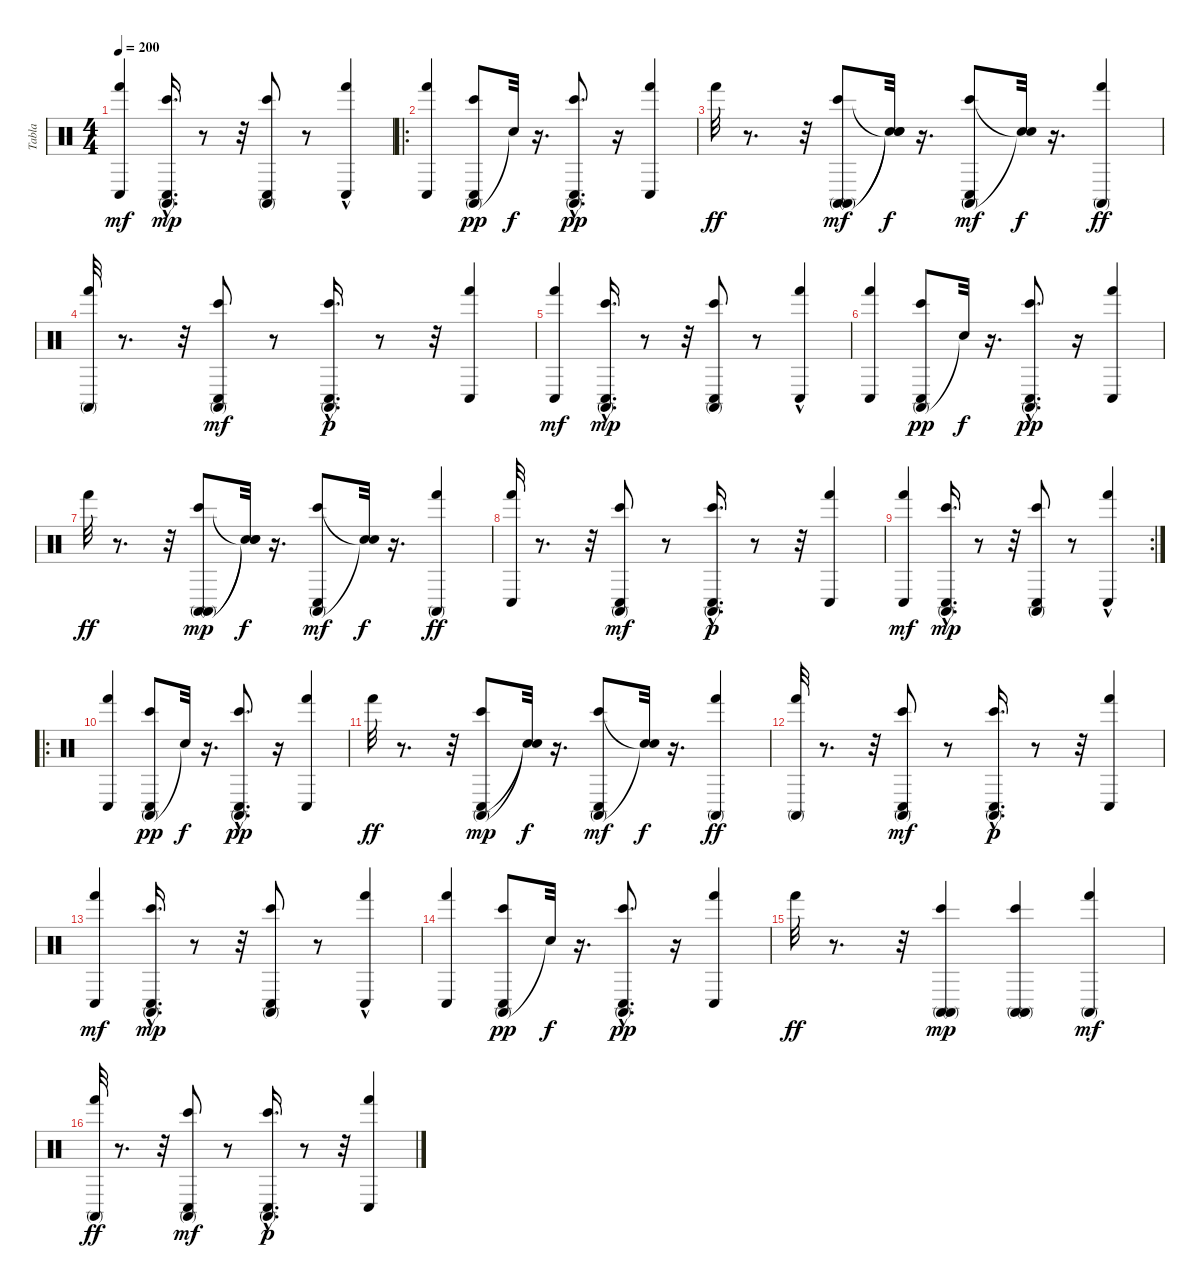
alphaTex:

\track ("Tabla" "Tabla") {instrument percussion}
\staff {score}
\articulation defaults
\ts (4 4)
\tempo 200
\clef neutral
\ks c
("Hand (hit)" "Conga low (hit)").4{dy mf} ("Conga low (hit)"{hac} "Conga high (mute)" "Bongo High (hit)").16{d dy mp} r.8 r.32 ("Conga low (hit)" "Conga high (mute)" "Bongo High (hit)").8 r.8 ("Conga low (hit)"{hac} "Hand (hit)").4 |
\ro
("Hand (hit)" "Conga low (hit)").4 ("Conga high (mute)" "Bongo High (hit)" "Conga low (hit)").8{dy pp} "Snare (hit)"{t}.32{dy f} r.16{d} ("Conga high (mute)" "Bongo High (hit)" "Conga low (hit)"{hac}).8{d dy pp} r.16 ("Hand (hit)" "Conga low (hit)").4 |
"Hand (hit)".32{dy ff} r.8{d} r.32 ("Conga high (mute)" "Bongo High (hit)" "Conga high (mute)").8{dy mf} ("Snare (hit)"{t} "Snare (hit)"{t} "Snare (hit)"{t}).32{dy f} r.16{d} ("Conga high (mute)" "Bongo High (hit)" "Conga low (hit)").8{dy mf} ("Snare (hit)"{t} "Snare (hit)"{t}).32{dy f} r.16{d} ("Conga high (mute)" "Hand (hit)").4{dy ff} |
("Hand (hit)" "Conga high (mute)").32 r.8{d} r.32 ("Conga low (hit)" "Conga high (mute)" "Bongo High (hit)").8{dy mf} r.8 ("Conga high (mute)" "Bongo High (hit)" "Conga low (hit)"{hac}).16{d dy p} r.8 r.32 ("Conga low (hit)" "Hand (hit)").4 |
("Hand (hit)" "Conga low (hit)").4{dy mf} ("Conga low (hit)"{hac} "Conga high (mute)" "Bongo High (hit)").16{d dy mp} r.8 r.32 ("Conga low (hit)" "Conga high (mute)" "Bongo High (hit)").8 r.8 ("Conga low (hit)"{hac} "Hand (hit)").4 |
("Hand (hit)" "Conga low (hit)").4 ("Conga high (mute)" "Bongo High (hit)" "Conga low (hit)").8{dy pp} "Snare (hit)"{t}.32{dy f} r.16{d} ("Conga high (mute)" "Bongo High (hit)" "Conga low (hit)"{hac}).8{d dy pp} r.16 ("Hand (hit)" "Conga low (hit)").4 |
"Hand (hit)".32{dy ff} r.8{d} r.32 ("Conga high (mute)" "Bongo High (hit)" "Conga high (mute)").8{dy mp} ("Snare (hit)"{t} "Snare (hit)"{t} "Snare (hit)"{t}).32{dy f} r.16{d} ("Conga high (mute)" "Bongo High (hit)" "Conga low (hit)").8{dy mf} ("Snare (hit)"{t} "Snare (hit)"{t}).32{dy f} r.16{d} ("Conga high (mute)" "Hand (hit)").4{dy ff} |
("Conga low (hit)" "Hand (hit)").32 r.8{d} r.32 ("Conga low (hit)" "Conga high (mute)" "Bongo High (hit)").8{dy mf} r.8 ("Conga high (mute)" "Bongo High (hit)" "Conga low (hit)"{hac}).16{d dy p} r.8 r.32 ("Conga low (hit)" "Hand (hit)").4 |
\rc 2
("Hand (hit)" "Conga low (hit)").4{dy mf} ("Conga low (hit)"{hac} "Conga high (mute)" "Bongo High (hit)").16{d dy mp} r.8 r.32 ("Conga low (hit)" "Conga high (mute)" "Bongo High (hit)").8 r.8 ("Conga low (hit)"{hac} "Hand (hit)").4 |
\ro
("Hand (hit)" "Conga low (hit)").4 ("Conga high (mute)" "Bongo High (hit)" "Conga low (hit)").8{dy pp} "Snare (hit)"{t}.32{dy f} r.16{d} ("Conga high (mute)" "Bongo High (hit)" "Conga low (hit)"{hac}).8{d dy pp} r.16 ("Hand (hit)" "Conga low (hit)").4 |
"Hand (hit)".32{dy ff} r.8{d} r.32 ("Conga low (hit)" "Conga high (mute)" "Bongo High (hit)").8{dy mp} ("Snare (hit)"{t} "Snare (hit)"{t}).32{dy f} r.16{d} ("Conga high (mute)" "Bongo High (hit)" "Conga low (hit)").8{dy mf} ("Snare (hit)"{t} "Snare (hit)"{t}).32{dy f} r.16{d} ("Conga high (mute)" "Hand (hit)").4{dy ff} |
("Hand (hit)" "Conga high (mute)").32 r.8{d} r.32 ("Conga low (hit)" "Conga high (mute)" "Bongo High (hit)").8{dy mf} r.8 ("Conga high (mute)" "Bongo High (hit)" "Conga low (hit)"{hac}).16{d dy p} r.8 r.32 ("Conga low (hit)" "Hand (hit)").4 |
("Hand (hit)" "Conga low (hit)").4{dy mf} ("Conga low (hit)"{hac} "Conga high (mute)" "Bongo High (hit)").16{d dy mp} r.8 r.32 ("Conga low (hit)" "Conga high (mute)" "Bongo High (hit)").8 r.8 ("Conga low (hit)"{hac} "Hand (hit)").4 |
("Hand (hit)" "Conga low (hit)").4 ("Conga high (mute)" "Bongo High (hit)" "Conga low (hit)").8{dy pp} "Snare (hit)"{t}.32{dy f} r.16{d} ("Conga high (mute)" "Bongo High (hit)" "Conga low (hit)"{hac}).8{d dy pp} r.16 ("Hand (hit)" "Conga low (hit)").4 |
"Hand (hit)".32{dy ff} r.8{d} r.32 ("Conga high (mute)" "Bongo High (hit)" "Conga high (mute)").4{dy mp} ("Conga high (mute)" "Conga high (mute)" "Bongo High (hit)").4 ("Hand (hit)" "Conga high (mute)").4{dy mf} |
("Hand (hit)" "Conga high (mute)").32{dy ff} r.8{d} r.32 ("Conga low (hit)" "Conga high (mute)" "Bongo High (hit)").8{dy mf} r.8 ("Conga high (mute)" "Bongo High (hit)" "Conga low (hit)"{hac}).16{d dy p} r.8 r.32 ("Conga low (hit)" "Hand (hit)").4
